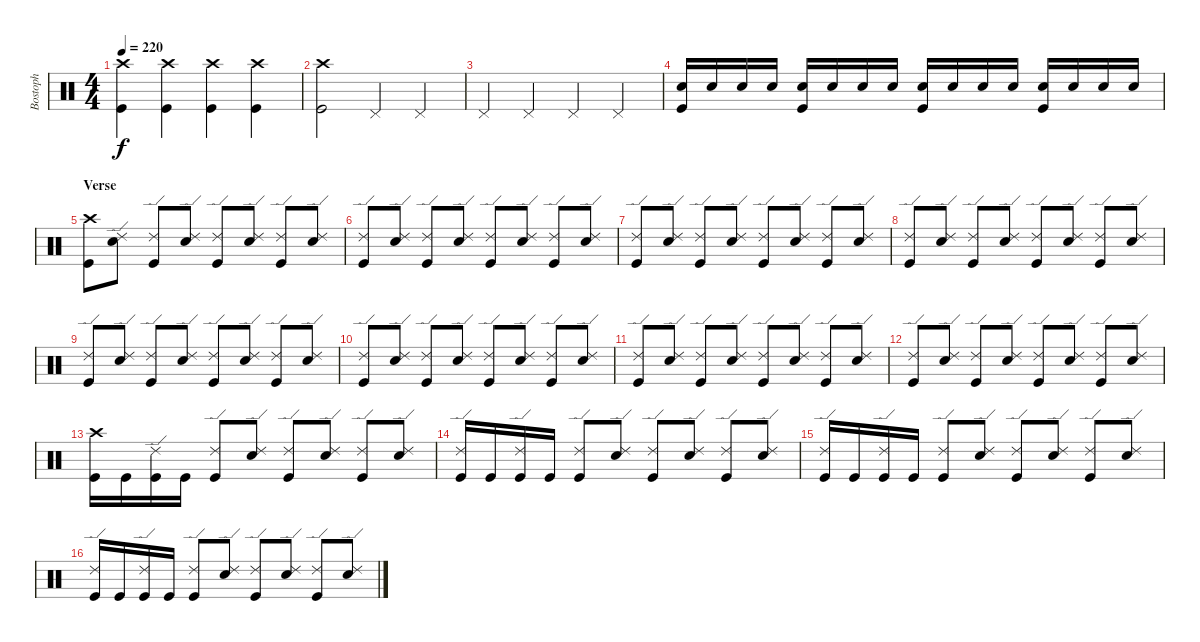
\track ("Bostoph" "Bostoph") {instrument percussion}
\staff {score}
\articulation defaults
\ts (4 4)
\tempo 220
\clef neutral
\ks c
("Crash high (hit)" "Kick (hit)").4{dy f} ("Crash high (hit)" "Kick (hit)").4 ("Crash high (hit)" "Kick (hit)").4 ("Crash high (hit)" "Kick (hit)").4 |
("Crash high (hit)" "Kick (hit)").2 "Pedal Hi-Hat (hit)".4 "Pedal Hi-Hat (hit)".4 |
"Pedal Hi-Hat (hit)".4 "Pedal Hi-Hat (hit)".4 "Pedal Hi-Hat (hit)".4 "Pedal Hi-Hat (hit)".4 |
("Snare (hit) 2" "Kick (hit)").16 "Snare (hit) 2".16 "Snare (hit) 2".16 "Snare (hit) 2".16 ("Snare (hit) 2" "Kick (hit)").16 "Snare (hit) 2".16 "Snare (hit) 2".16 "Snare (hit) 2".16 ("Snare (hit) 2" "Kick (hit)").16 "Snare (hit) 2".16 "Snare (hit) 2".16 "Snare (hit) 2".16 ("Snare (hit) 2" "Kick (hit)").16 "Snare (hit) 2".16 "Snare (hit) 2".16 "Snare (hit) 2".16 |
\section ("" "Verse")
("Crash high (hit)" "Kick (hit)").8 ("Ride (edge) 2" "Snare (hit) 2").8 ("Ride (edge) 2" "Kick (hit)").8 ("Ride (edge) 2" "Snare (hit) 2").8 ("Ride (edge) 2" "Kick (hit)").8 ("Ride (edge) 2" "Snare (hit) 2").8 ("Ride (edge) 2" "Kick (hit)").8 ("Ride (edge) 2" "Snare (hit) 2").8 |
("Ride (edge) 2" "Kick (hit)").8 ("Ride (edge) 2" "Snare (hit) 2").8 ("Ride (edge) 2" "Kick (hit)").8 ("Ride (edge) 2" "Snare (hit) 2").8 ("Ride (edge) 2" "Kick (hit)").8 ("Ride (edge) 2" "Snare (hit) 2").8 ("Ride (edge) 2" "Kick (hit)").8 ("Ride (edge) 2" "Snare (hit) 2").8 |
("Ride (edge) 2" "Kick (hit)").8 ("Ride (edge) 2" "Snare (hit) 2").8 ("Ride (edge) 2" "Kick (hit)").8 ("Ride (edge) 2" "Snare (hit) 2").8 ("Ride (edge) 2" "Kick (hit)").8 ("Ride (edge) 2" "Snare (hit) 2").8 ("Ride (edge) 2" "Kick (hit)").8 ("Ride (edge) 2" "Snare (hit) 2").8 |
("Ride (edge) 2" "Kick (hit)").8 ("Ride (edge) 2" "Snare (hit) 2").8 ("Ride (edge) 2" "Kick (hit)").8 ("Ride (edge) 2" "Snare (hit) 2").8 ("Ride (edge) 2" "Kick (hit)").8 ("Ride (edge) 2" "Snare (hit) 2").8 ("Ride (edge) 2" "Kick (hit)").8 ("Ride (edge) 2" "Snare (hit) 2").8 |
("Ride (edge) 2" "Kick (hit)").8 ("Ride (edge) 2" "Snare (hit) 2").8 ("Ride (edge) 2" "Kick (hit)").8 ("Ride (edge) 2" "Snare (hit) 2").8 ("Ride (edge) 2" "Kick (hit)").8 ("Ride (edge) 2" "Snare (hit) 2").8 ("Ride (edge) 2" "Kick (hit)").8 ("Ride (edge) 2" "Snare (hit) 2").8 |
("Ride (edge) 2" "Kick (hit)").8 ("Ride (edge) 2" "Snare (hit) 2").8 ("Ride (edge) 2" "Kick (hit)").8 ("Ride (edge) 2" "Snare (hit) 2").8 ("Ride (edge) 2" "Kick (hit)").8 ("Ride (edge) 2" "Snare (hit) 2").8 ("Ride (edge) 2" "Kick (hit)").8 ("Ride (edge) 2" "Snare (hit) 2").8 |
("Ride (edge) 2" "Kick (hit)").8 ("Ride (edge) 2" "Snare (hit) 2").8 ("Ride (edge) 2" "Kick (hit)").8 ("Ride (edge) 2" "Snare (hit) 2").8 ("Ride (edge) 2" "Kick (hit)").8 ("Ride (edge) 2" "Snare (hit) 2").8 ("Ride (edge) 2" "Kick (hit)").8 ("Ride (edge) 2" "Snare (hit) 2").8 |
("Ride (edge) 2" "Kick (hit)").8 ("Ride (edge) 2" "Snare (hit) 2").8 ("Ride (edge) 2" "Kick (hit)").8 ("Ride (edge) 2" "Snare (hit) 2").8 ("Ride (edge) 2" "Kick (hit)").8 ("Ride (edge) 2" "Snare (hit) 2").8 ("Ride (edge) 2" "Kick (hit)").8 ("Ride (edge) 2" "Snare (hit) 2").8 |
("Crash high (hit)" "Kick (hit)").16 "Kick (hit)".16 ("Ride (edge) 2" "Kick (hit)").16 "Kick (hit)".16 ("Ride (edge) 2" "Kick (hit)").8 ("Ride (edge) 2" "Snare (hit) 2").8 ("Ride (edge) 2" "Kick (hit)").8 ("Ride (edge) 2" "Snare (hit) 2").8 ("Ride (edge) 2" "Kick (hit)").8 ("Ride (edge) 2" "Snare (hit) 2").8 |
("Ride (edge) 2" "Kick (hit)").16 "Kick (hit)".16 ("Ride (edge) 2" "Kick (hit)").16 "Kick (hit)".16 ("Ride (edge) 2" "Kick (hit)").8 ("Ride (edge) 2" "Snare (hit) 2").8 ("Ride (edge) 2" "Kick (hit)").8 ("Ride (edge) 2" "Snare (hit) 2").8 ("Ride (edge) 2" "Kick (hit)").8 ("Ride (edge) 2" "Snare (hit) 2").8 |
("Ride (edge) 2" "Kick (hit)").16 "Kick (hit)".16 ("Ride (edge) 2" "Kick (hit)").16 "Kick (hit)".16 ("Ride (edge) 2" "Kick (hit)").8 ("Ride (edge) 2" "Snare (hit) 2").8 ("Ride (edge) 2" "Kick (hit)").8 ("Ride (edge) 2" "Snare (hit) 2").8 ("Ride (edge) 2" "Kick (hit)").8 ("Ride (edge) 2" "Snare (hit) 2").8 |
("Ride (edge) 2" "Kick (hit)").16 "Kick (hit)".16 ("Ride (edge) 2" "Kick (hit)").16 "Kick (hit)".16 ("Ride (edge) 2" "Kick (hit)").8 ("Ride (edge) 2" "Snare (hit) 2").8 ("Ride (edge) 2" "Kick (hit)").8 ("Ride (edge) 2" "Snare (hit) 2").8 ("Ride (edge) 2" "Kick (hit)").8 ("Ride (edge) 2" "Snare (hit) 2").8
